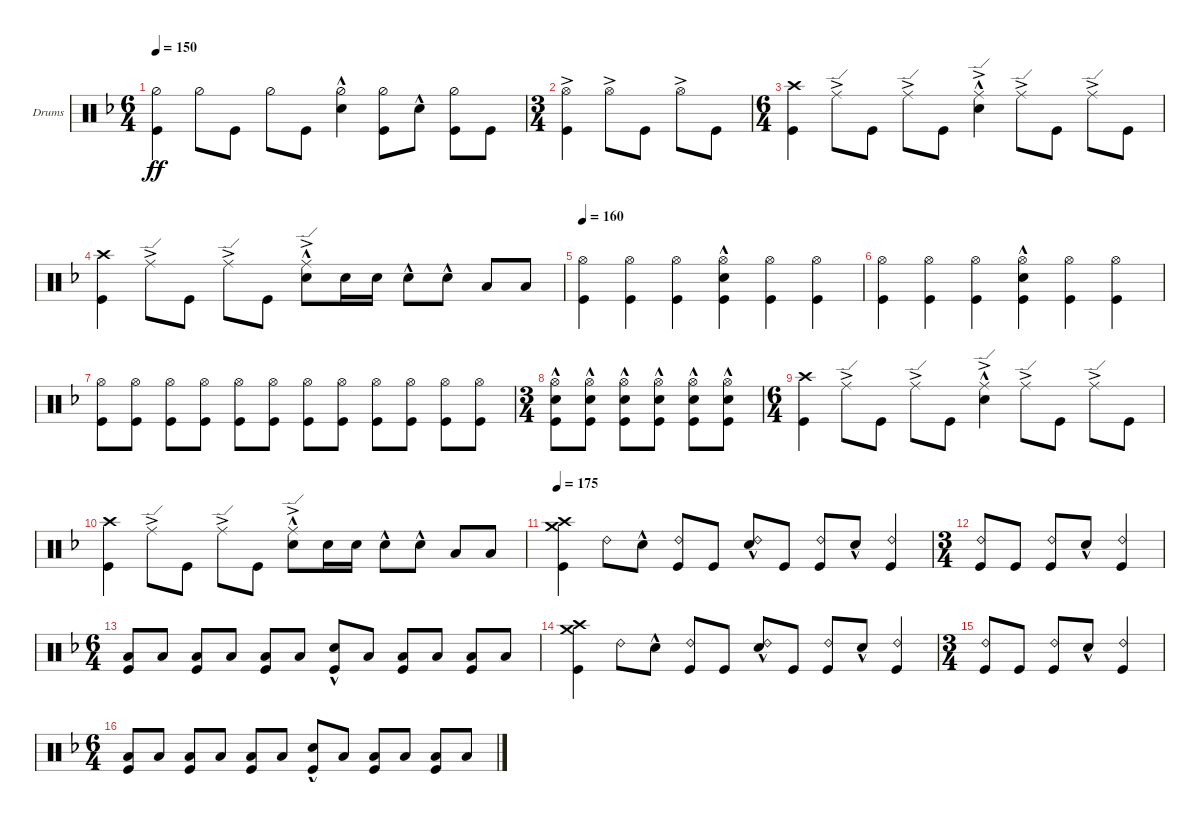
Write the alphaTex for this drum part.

\defaultSystemsLayout 4
\bracketExtendMode groupsimilarinstruments
\firstSystemTrackNameOrientation horizontal
\otherSystemsTrackNameOrientation horizontal
\track ("Drumkit" "Drums") {instrument percussion}
\staff {score}
\articulation defaults
\ts (6 4)
\tempo 150
\clef neutral
\ks f
("Kick (hit)" "Hi-Hat (half)").4{dy ff} "Hi-Hat (half)".8 "Kick (hit)".8 "Hi-Hat (half)".8 "Kick (hit)".8 ("Hi-Hat (half)" "Snare (hit) 2"{hac}).4 ("Hi-Hat (half)" "Kick (hit)").8 "Snare (hit) 2"{hac}.8 ("Hi-Hat (half)" "Kick (hit)").8 "Kick (hit)".8 |
\ts (3 4)
("Kick (hit)" "Hi-Hat (open)"{ac}).4 "Hi-Hat (open)"{ac}.8 "Kick (hit)".8 "Hi-Hat (open)"{ac}.8 "Kick (hit)".8 |
\ts (6 4)
("Kick (hit)" "Crash high (hit)").4 "Ride (edge)"{ac}.8 "Kick (hit)".8 "Ride (edge)"{ac}.8 "Kick (hit)".8 ("Snare (hit) 2"{hac} "Ride (edge)"{ac}).4 "Ride (edge)"{ac}.8 "Kick (hit)".8 "Ride (edge)"{ac}.8 "Kick (hit)".8 |
("Kick (hit)" "Crash high (hit)").4 "Ride (edge)"{ac}.8 "Kick (hit)".8 "Ride (edge)"{ac}.8 "Kick (hit)".8 ("Snare (hit) 2"{hac} "Ride (edge)"{ac}).8 "Snare (hit) 2".16 "Snare (hit) 2".16 "Snare (hit) 2"{hac}.8 "Snare (hit) 2"{hac}.8 "Low Tom (hit)".8 "Low Tom (hit)".8 |
\tempo 160
("Kick (hit)" "Hi-Hat (open)").4 ("Kick (hit)" "Hi-Hat (open)").4 ("Kick (hit)" "Hi-Hat (open)").4 ("Kick (hit)" "Hi-Hat (open)" "Snare (hit) 2"{hac}).4 ("Kick (hit)" "Hi-Hat (open)").4 ("Kick (hit)" "Hi-Hat (open)").4 |
("Kick (hit)" "Hi-Hat (open)").4 ("Kick (hit)" "Hi-Hat (open)").4 ("Kick (hit)" "Hi-Hat (open)").4 ("Kick (hit)" "Hi-Hat (open)" "Snare (hit) 2"{hac}).4 ("Kick (hit)" "Hi-Hat (open)").4 ("Kick (hit)" "Hi-Hat (open)").4 |
("Kick (hit)" "Hi-Hat (open)").8 ("Kick (hit)" "Hi-Hat (open)").8 ("Kick (hit)" "Hi-Hat (open)").8 ("Kick (hit)" "Hi-Hat (open)").8 ("Kick (hit)" "Hi-Hat (open)").8 ("Kick (hit)" "Hi-Hat (open)").8 ("Kick (hit)" "Hi-Hat (open)").8 ("Kick (hit)" "Hi-Hat (open)").8 ("Kick (hit)" "Hi-Hat (open)").8 ("Kick (hit)" "Hi-Hat (open)").8 ("Kick (hit)" "Hi-Hat (open)").8 ("Kick (hit)" "Hi-Hat (open)").8 |
\ts (3 4)
("Kick (hit)" "Hi-Hat (open)" "Snare (hit) 2"{hac}).8 ("Kick (hit)" "Hi-Hat (open)" "Snare (hit) 2"{hac}).8 ("Kick (hit)" "Hi-Hat (open)" "Snare (hit) 2"{hac}).8 ("Kick (hit)" "Hi-Hat (open)" "Snare (hit) 2"{hac}).8 ("Kick (hit)" "Hi-Hat (open)" "Snare (hit) 2"{hac}).8 ("Kick (hit)" "Hi-Hat (open)" "Snare (hit) 2"{hac}).8 |
\ts (6 4)
("Kick (hit)" "Crash high (hit)").4 "Ride (edge)"{ac}.8 "Kick (hit)".8 "Ride (edge)"{ac}.8 "Kick (hit)".8 ("Snare (hit) 2"{hac} "Ride (edge)"{ac}).4 "Ride (edge)"{ac}.8 "Kick (hit)".8 "Ride (edge)"{ac}.8 "Kick (hit)".8 |
("Kick (hit)" "Crash high (hit)").4 "Ride (edge)"{ac}.8 "Kick (hit)".8 "Ride (edge)"{ac}.8 "Kick (hit)".8 ("Snare (hit) 2"{hac} "Ride (edge)"{ac}).8 "Snare (hit) 2".16 "Snare (hit) 2".16 "Snare (hit) 2"{hac}.8 "Snare (hit) 2"{hac}.8 "Low Tom (hit)".8 "Low Tom (hit)".8 |
\tempo 175
("Kick (hit)" "Crash high (hit)" "Crash medium (hit)").4 "Ride (bell) 2".8 "Snare (hit) 2"{hac}.8 ("Ride (bell) 2" "Kick (hit)").8 "Kick (hit)".8 ("Ride (bell) 2" "Snare (hit) 2"{hac}).8 "Kick (hit)".8 ("Ride (bell) 2" "Kick (hit)").8 "Snare (hit) 2"{hac}.8 ("Ride (bell) 2" "Kick (hit)").4 |
\ts (3 4)
("Kick (hit)" "Ride (bell) 2").8 "Kick (hit)".8 ("Kick (hit)" "Ride (bell) 2").8 "Snare (hit) 2"{hac}.8 ("Kick (hit)" "Ride (bell) 2").4 |
\ts (6 4)
("Low Tom (hit)" "Kick (hit)").8 "Low Tom (hit)".8 ("Kick (hit)" "Low Tom (hit)").8 "Low Tom (hit)".8 ("Kick (hit)" "Low Tom (hit)").8 "Low Tom (hit)".8 ("Kick (hit)" "Snare (hit) 2"{hac}).8 "Low Tom (hit)".8 ("Kick (hit)" "Low Tom (hit)").8 "Low Tom (hit)".8 ("Kick (hit)" "Low Tom (hit)").8 "Low Tom (hit)".8 |
("Kick (hit)" "Crash high (hit)" "Crash medium (hit)").4 "Ride (bell) 2".8 "Snare (hit) 2"{hac}.8 ("Ride (bell) 2" "Kick (hit)").8 "Kick (hit)".8 ("Ride (bell) 2" "Snare (hit) 2"{hac}).8 "Kick (hit)".8 ("Ride (bell) 2" "Kick (hit)").8 "Snare (hit) 2"{hac}.8 ("Ride (bell) 2" "Kick (hit)").4 |
\ts (3 4)
("Kick (hit)" "Ride (bell) 2").8 "Kick (hit)".8 ("Kick (hit)" "Ride (bell) 2").8 "Snare (hit) 2"{hac}.8 ("Kick (hit)" "Ride (bell) 2").4 |
\ts (6 4)
("Low Tom (hit)" "Kick (hit)").8 "Low Tom (hit)".8 ("Kick (hit)" "Low Tom (hit)").8 "Low Tom (hit)".8 ("Kick (hit)" "Low Tom (hit)").8 "Low Tom (hit)".8 ("Kick (hit)" "Snare (hit) 2"{hac}).8 "Low Tom (hit)".8 ("Kick (hit)" "Low Tom (hit)").8 "Low Tom (hit)".8 ("Kick (hit)" "Low Tom (hit)").8 "Low Tom (hit)".8
